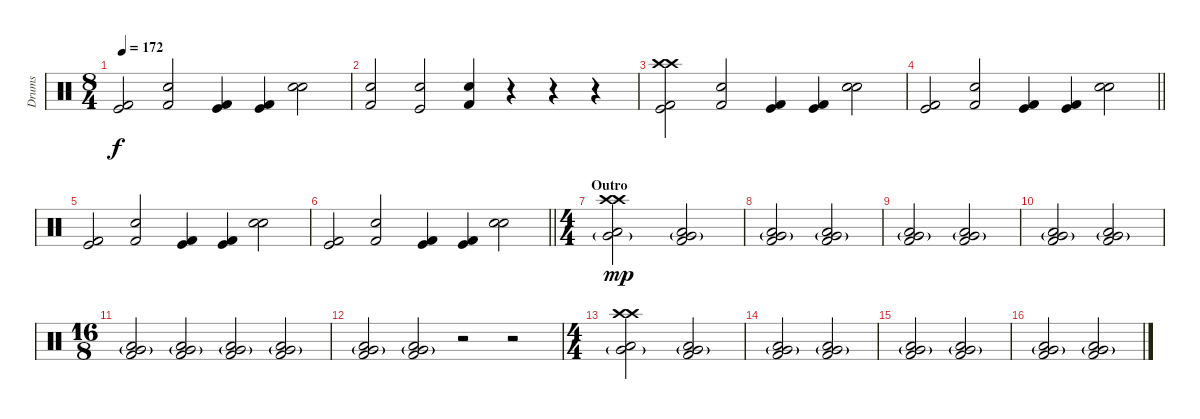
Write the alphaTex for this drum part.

\track ("Drums" "Drums") {instrument percussion}
\staff {score}
\articulation defaults
\ts (8 4)
\tempo 172
\clef neutral
\ks c
("Kick (hit) 2" "Kick (hit)").2{dy f} ("Snare (hit) 2" "Kick (hit) 2").2 ("Kick (hit) 2" "Kick (hit)").4 ("Kick (hit) 2" "Kick (hit)").4 ("Snare (hit) 2" "Electric Snare (hit)").2 |
("Kick (hit) 2" "Snare (hit) 2").2 ("Snare (hit) 2" "Kick (hit)").2 ("Kick (hit) 2" "Electric Snare (hit)").4 r.4 r.4 r.4 |
("Crash high (hit)" "Kick (hit) 2" "Kick (hit)" "Crash high (hit)").2 ("Snare (hit) 2" "Kick (hit) 2").2 ("Kick (hit) 2" "Kick (hit)").4 ("Kick (hit) 2" "Kick (hit)").4 ("Snare (hit) 2" "Electric Snare (hit)").2 |
\barLineRight lightlight
("Kick (hit) 2" "Kick (hit)").2 ("Snare (hit) 2" "Kick (hit) 2").2 ("Kick (hit) 2" "Kick (hit)").4 ("Kick (hit) 2" "Kick (hit)").4 ("Snare (hit) 2" "Electric Snare (hit)").2 |
("Kick (hit) 2" "Kick (hit)").2 ("Snare (hit) 2" "Kick (hit) 2").2 ("Kick (hit) 2" "Kick (hit)").4 ("Kick (hit) 2" "Kick (hit)").4 ("Snare (hit) 2" "Electric Snare (hit)").2 |
\barLineRight lightlight
("Kick (hit) 2" "Kick (hit)").2 ("Snare (hit) 2" "Kick (hit) 2").2 ("Kick (hit) 2" "Kick (hit)").4 ("Kick (hit) 2" "Kick (hit)").4 ("Snare (hit) 2" "Electric Snare (hit)").2 |
\ts (4 4)
\section ("" "Outro")
("Crash high (hit)" "Low Floor Tom (hit)" "Very Low Tom (hit)"{g} "Crash high (hit)").2{dy mp} ("Kick (hit) 2" "Low Floor Tom (hit)" "Very Low Tom (hit)"{g}).2 |
("Kick (hit) 2" "Low Floor Tom (hit)" "Very Low Tom (hit)"{g}).2 ("Kick (hit) 2" "Low Floor Tom (hit)" "Very Low Tom (hit)"{g}).2 |
("Kick (hit) 2" "Low Floor Tom (hit)" "Very Low Tom (hit)"{g}).2 ("Kick (hit) 2" "Low Floor Tom (hit)" "Very Low Tom (hit)"{g}).2 |
("Kick (hit) 2" "Low Floor Tom (hit)" "Very Low Tom (hit)"{g}).2 ("Kick (hit) 2" "Low Floor Tom (hit)" "Very Low Tom (hit)"{g}).2 |
\ts (16 8)
("Kick (hit) 2" "Low Floor Tom (hit)" "Very Low Tom (hit)"{g}).2 ("Kick (hit) 2" "Low Floor Tom (hit)" "Very Low Tom (hit)"{g}).2 ("Kick (hit) 2" "Low Floor Tom (hit)" "Very Low Tom (hit)"{g}).2 ("Kick (hit) 2" "Low Floor Tom (hit)" "Very Low Tom (hit)"{g}).2 |
("Kick (hit) 2" "Low Floor Tom (hit)" "Very Low Tom (hit)"{g}).2 ("Kick (hit) 2" "Low Floor Tom (hit)" "Very Low Tom (hit)"{g}).2 r.2 r.2 |
\ts (4 4)
("Crash high (hit)" "Low Floor Tom (hit)" "Very Low Tom (hit)"{g} "Crash high (hit)").2 ("Kick (hit) 2" "Low Floor Tom (hit)" "Very Low Tom (hit)"{g}).2 |
("Kick (hit) 2" "Low Floor Tom (hit)" "Very Low Tom (hit)"{g}).2 ("Kick (hit) 2" "Low Floor Tom (hit)" "Very Low Tom (hit)"{g}).2 |
("Kick (hit) 2" "Low Floor Tom (hit)" "Very Low Tom (hit)"{g}).2 ("Kick (hit) 2" "Low Floor Tom (hit)" "Very Low Tom (hit)"{g}).2 |
("Kick (hit) 2" "Low Floor Tom (hit)" "Very Low Tom (hit)"{g}).2 ("Kick (hit) 2" "Low Floor Tom (hit)" "Very Low Tom (hit)"{g}).2
